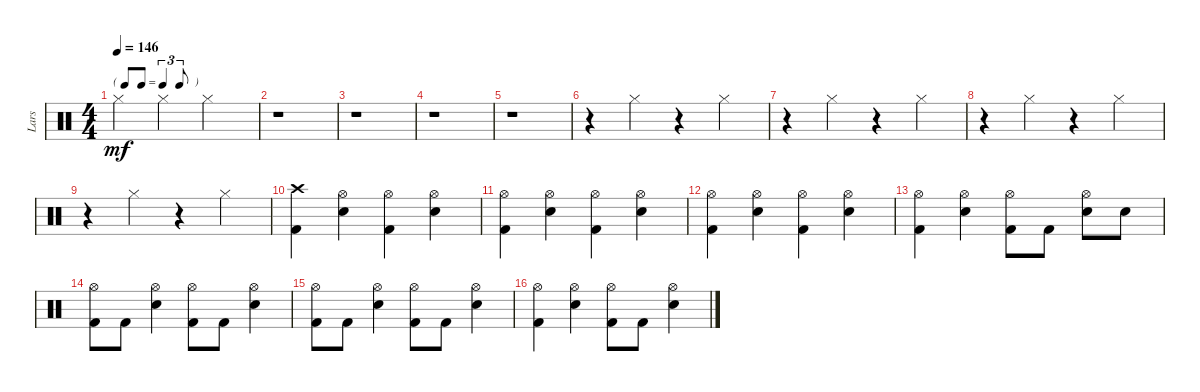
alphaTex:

\track ("Lars" "Lars") {instrument percussion}
\staff {score}
\articulation defaults
\ts (4 4)
\tf triplet8th
\tempo 146
\clef neutral
\ks c "Hi-Hat (closed)".4{dy mf} "Hi-Hat (closed)".4 "Hi-Hat (closed)".2
|
r.1 |
r.1 |
r.1 |
r.1 |
r.4 "Hi-Hat (closed)".4 r.4 "Hi-Hat (closed)".4 |
r.4 "Hi-Hat (closed)".4 r.4 "Hi-Hat (closed)".4 |
r.4 "Hi-Hat (closed)".4 r.4 "Hi-Hat (closed)".4 |
r.4 "Hi-Hat (closed)".4 r.4 "Hi-Hat (closed)".4 |
("Crash high (hit)" "Kick (hit) 2").4 ("Hi-Hat (open)" "Electric Snare (hit)").4 ("Hi-Hat (open)" "Kick (hit) 2").4 ("Hi-Hat (open)" "Electric Snare (hit)").4 |
("Hi-Hat (open)" "Kick (hit) 2").4 ("Hi-Hat (open)" "Electric Snare (hit)").4 ("Hi-Hat (open)" "Kick (hit) 2").4 ("Hi-Hat (open)" "Electric Snare (hit)").4 |
("Hi-Hat (open)" "Kick (hit) 2").4 ("Hi-Hat (open)" "Electric Snare (hit)").4 ("Hi-Hat (open)" "Kick (hit) 2").4 ("Hi-Hat (open)" "Electric Snare (hit)").4 |
("Hi-Hat (open)" "Kick (hit) 2").4 ("Hi-Hat (open)" "Electric Snare (hit)").4 ("Hi-Hat (open)" "Kick (hit) 2").8 "Kick (hit) 2".8 ("Hi-Hat (open)" "Electric Snare (hit)").8 "Electric Snare (hit)".8 |
("Hi-Hat (open)" "Kick (hit) 2").8 "Kick (hit) 2".8 ("Hi-Hat (open)" "Electric Snare (hit)").4 ("Hi-Hat (open)" "Kick (hit) 2").8 "Kick (hit) 2".8 ("Hi-Hat (open)" "Electric Snare (hit)").4 |
("Hi-Hat (open)" "Kick (hit) 2").8 "Kick (hit) 2".8 ("Hi-Hat (open)" "Electric Snare (hit)").4 ("Hi-Hat (open)" "Kick (hit) 2").8 "Kick (hit) 2".8 ("Hi-Hat (open)" "Electric Snare (hit)").4 |
("Hi-Hat (open)" "Kick (hit) 2").4 ("Hi-Hat (open)" "Electric Snare (hit)").4 ("Hi-Hat (open)" "Kick (hit) 2").8 "Kick (hit) 2".8 ("Hi-Hat (open)" "Electric Snare (hit)").4
